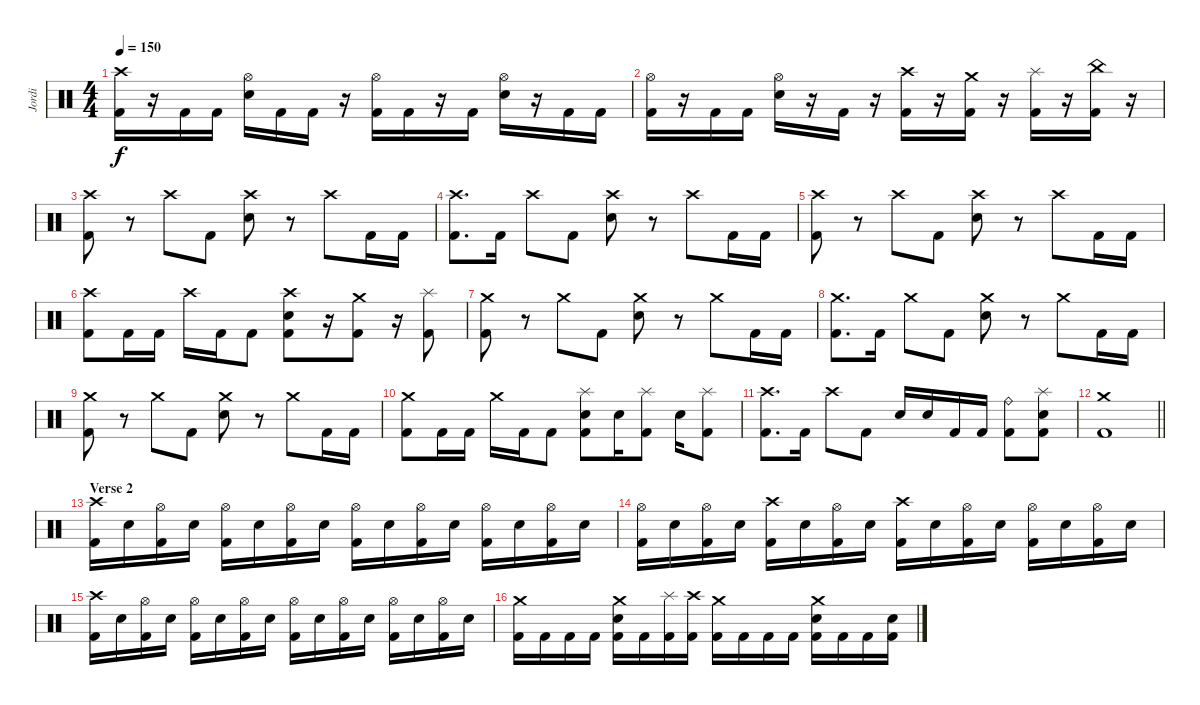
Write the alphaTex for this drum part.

\track ("Jordi" "Jordi") {instrument percussion}
\staff {score}
\articulation defaults
\ts (4 4)
\tempo 150
\clef neutral
\ks c
("Crash high (hit)" "Kick (hit) 2").16{dy f} r.16 "Kick (hit) 2".16 "Kick (hit) 2".16 ("Hi-Hat (open)" "Snare (hit) 2").16 "Kick (hit) 2".16 "Kick (hit) 2".16 r.16 ("Hi-Hat (open)" "Kick (hit) 2").16 "Kick (hit) 2".16 r.16 "Kick (hit) 2".16 ("Hi-Hat (open)" "Snare (hit) 2").16 r.16 "Kick (hit) 2".16 "Kick (hit) 2".16 |
("Hi-Hat (open)" "Kick (hit) 2").16 r.16 "Kick (hit) 2".16 "Kick (hit) 2".16 ("Hi-Hat (open)" "Snare (hit) 2").16 r.16 "Kick (hit) 2".16 r.16 ("Crash high (hit)" "Kick (hit) 2").16 r.16 ("Crash medium (hit)" "Kick (hit) 2").16 r.16 ("Splash (hit)" "Kick (hit) 2").16 r.16 ("China (hit)" "Kick (hit) 2").16 r.16 |
("Crash high (hit)" "Kick (hit) 2").8 r.8 "Crash high (hit)".8 "Kick (hit) 2".8 ("Crash high (hit)" "Snare (hit) 2").8 r.8 "Crash high (hit)".8 "Kick (hit) 2".16 "Kick (hit) 2".16 |
("Crash high (hit)" "Kick (hit) 2").8{d} "Kick (hit) 2".16 "Crash high (hit)".8 "Kick (hit) 2".8 ("Crash high (hit)" "Snare (hit) 2").8 r.8 "Crash high (hit)".8 "Kick (hit) 2".16 "Kick (hit) 2".16 |
("Crash high (hit)" "Kick (hit) 2").8 r.8 "Crash high (hit)".8 "Kick (hit) 2".8 ("Crash high (hit)" "Snare (hit) 2").8 r.8 "Crash high (hit)".8 "Kick (hit) 2".16 "Kick (hit) 2".16 |
("Crash high (hit)" "Kick (hit) 2").8 "Kick (hit) 2".16 "Kick (hit) 2".16 "Crash high (hit)".16 "Kick (hit) 2".16 "Kick (hit) 2".8 ("Crash high (hit)" "Snare (hit) 2" "Kick (hit) 2").8 r.16 ("Crash medium (hit)" "Kick (hit) 2").8 r.16 ("Splash (hit)" "Kick (hit) 2").8 |
("Crash medium (hit)" "Kick (hit) 2").8 r.8 "Crash medium (hit)".8 "Kick (hit) 2".8 ("Crash medium (hit)" "Snare (hit) 2").8 r.8 "Crash medium (hit)".8 "Kick (hit) 2".16 "Kick (hit) 2".16 |
("Crash medium (hit)" "Kick (hit) 2").8{d} "Kick (hit) 2".16 "Crash medium (hit)".8 "Kick (hit) 2".8 ("Crash medium (hit)" "Snare (hit) 2").8 r.8 "Crash medium (hit)".8 "Kick (hit) 2".16 "Kick (hit) 2".16 |
("Crash medium (hit)" "Kick (hit) 2").8 r.8 "Crash medium (hit)".8 "Kick (hit) 2".8 ("Crash medium (hit)" "Snare (hit) 2").8 r.8 "Crash medium (hit)".8 "Kick (hit) 2".16 "Kick (hit) 2".16 |
("Crash medium (hit)" "Kick (hit) 2").8 "Kick (hit) 2".16 "Kick (hit) 2".16 "Crash medium (hit)".16 "Kick (hit) 2".16 "Kick (hit) 2".8 ("Splash (hit)" "Snare (hit) 2" "Kick (hit) 2").8 "Snare (hit) 2".16 ("Splash (hit)" "Kick (hit) 2").8 "Snare (hit) 2".16 ("Splash (hit)" "Kick (hit) 2").8 |
("Crash high (hit)" "Kick (hit) 2").8{d} "Kick (hit) 2".16 "Crash high (hit)".8 "Kick (hit) 2".8 "Snare (hit) 2".16 "Snare (hit) 2".16 "Kick (hit) 2".16 "Kick (hit) 2".16 ("Ride (bell)" "Kick (hit) 2").8 ("Splash (hit)" "Snare (hit) 2" "Kick (hit) 2").8 |
\barLineRight lightlight
("Crash medium (hit)" "Kick (hit) 2").1 |
\section ("" "Verse 2")
("Crash high (hit)" "Kick (hit) 2").16 "Snare (hit) 2".16 ("Hi-Hat (open)" "Kick (hit) 2").16 "Snare (hit) 2".16 ("Hi-Hat (open)" "Kick (hit) 2").16 "Snare (hit) 2".16 ("Hi-Hat (open)" "Kick (hit) 2").16 "Snare (hit) 2".16 ("Hi-Hat (open)" "Kick (hit) 2").16 "Snare (hit) 2".16 ("Hi-Hat (open)" "Kick (hit) 2").16 "Snare (hit) 2".16 ("Hi-Hat (open)" "Kick (hit) 2").16 "Snare (hit) 2".16 ("Hi-Hat (open)" "Kick (hit) 2").16 "Snare (hit) 2".16 |
("Hi-Hat (open)" "Kick (hit) 2").16 "Snare (hit) 2".16 ("Hi-Hat (open)" "Kick (hit) 2").16 "Snare (hit) 2".16 ("Crash high (hit)" "Kick (hit) 2").16 "Snare (hit) 2".16 ("Hi-Hat (open)" "Kick (hit) 2").16 "Snare (hit) 2".16 ("Crash high (hit)" "Kick (hit) 2").16 "Snare (hit) 2".16 ("Hi-Hat (open)" "Kick (hit) 2").16 "Snare (hit) 2".16 ("Hi-Hat (open)" "Kick (hit) 2").16 "Snare (hit) 2".16 ("Hi-Hat (open)" "Kick (hit) 2").16 "Snare (hit) 2".16 |
("Crash high (hit)" "Kick (hit) 2").16 "Snare (hit) 2".16 ("Hi-Hat (open)" "Kick (hit) 2").16 "Snare (hit) 2".16 ("Hi-Hat (open)" "Kick (hit) 2").16 "Snare (hit) 2".16 ("Hi-Hat (open)" "Kick (hit) 2").16 "Snare (hit) 2".16 ("Hi-Hat (open)" "Kick (hit) 2").16 "Snare (hit) 2".16 ("Hi-Hat (open)" "Kick (hit) 2").16 "Snare (hit) 2".16 ("Hi-Hat (open)" "Kick (hit) 2").16 "Snare (hit) 2".16 ("Hi-Hat (open)" "Kick (hit) 2").16 "Snare (hit) 2".16 |
("Crash medium (hit)" "Kick (hit) 2").16 "Kick (hit) 2".16 "Kick (hit) 2".16 "Kick (hit) 2".16 ("Crash medium (hit)" "Snare (hit) 2" "Kick (hit) 2").16 "Kick (hit) 2".16 ("Splash (hit)" "Kick (hit) 2").16 ("Crash high (hit)" "Kick (hit) 2").16 ("Crash medium (hit)" "Kick (hit) 2").16 "Kick (hit) 2".16 "Kick (hit) 2".16 "Kick (hit) 2".16 ("Crash medium (hit)" "Snare (hit) 2" "Kick (hit) 2").16 "Kick (hit) 2".16 "Kick (hit) 2".16 ("Snare (hit) 2" "Kick (hit) 2").16
